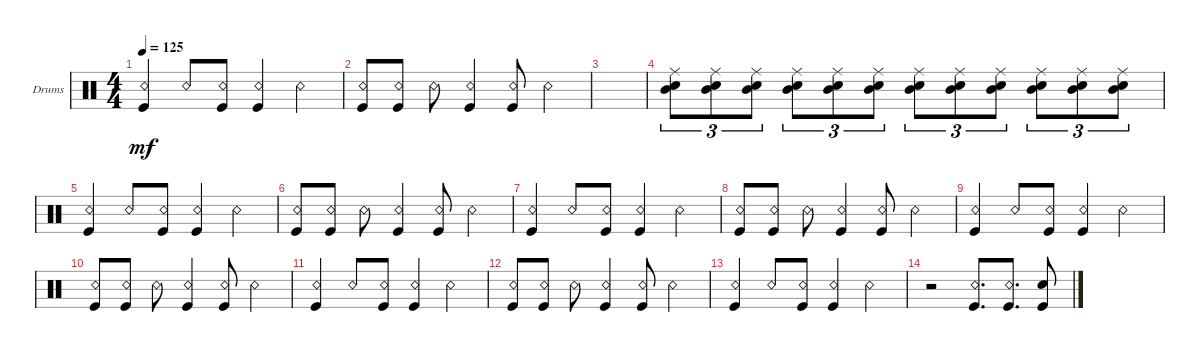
\defaultSystemsLayout 4
\bracketExtendMode groupsimilarinstruments
\firstSystemTrackNameOrientation horizontal
\otherSystemsTrackNameOrientation horizontal
\track ("Drumkit" "Drums") {instrument percussion}
\staff {score}
\articulation defaults
\ts (4 4)
\tempo 125
\clef neutral
\scale
0.333333
\ks c
("Kick (hit)" "Snare (rim shot)").4{dy mf} "Snare (rim shot)".8 ("Kick (hit)" "Snare (rim shot)").8 ("Kick (hit)" "Snare (rim shot)").4 "Snare (rim shot)".4 |
\scale
0.333333 ("Snare (rim shot)" "Kick (hit)").8 ("Snare (rim shot)" "Kick (hit)").8 "Snare (rim shot)".8 ("Snare (rim shot)" "Kick (hit)").4 ("Snare (rim shot)" "Kick (hit)").8 "Snare (rim shot)".4 |
\scale
0.333333 |
\scale
0.333333 ("Mid Tom (hit)" "Ride (middle)" "Snare (hit) 2").8{tu (3 2)} ("Mid Tom (hit)" "Ride (middle)" "Snare (hit) 2").8{tu (3 2)} ("Mid Tom (hit)" "Ride (middle)" "Snare (hit) 2").8{tu (3 2)} ("Mid Tom (hit)" "Ride (middle)" "Snare (hit) 2").8{tu (3 2)} ("Mid Tom (hit)" "Ride (middle)" "Snare (hit) 2").8{tu (3 2)} ("Mid Tom (hit)" "Ride (middle)" "Snare (hit) 2").8{tu (3 2)} ("Mid Tom (hit)" "Ride (middle)" "Snare (hit) 2").8{tu (3 2)} ("Mid Tom (hit)" "Ride (middle)" "Snare (hit) 2").8{tu (3 2)} ("Mid Tom (hit)" "Ride (middle)" "Snare (hit) 2").8{tu (3 2)} ("Mid Tom (hit)" "Ride (middle)" "Snare (hit) 2").8{tu (3 2)} ("Mid Tom (hit)" "Ride (middle)" "Snare (hit) 2").8{tu (3 2)} ("Mid Tom (hit)" "Ride (middle)" "Snare (hit) 2").8{tu (3 2)} |
\scale
0.333333 ("Kick (hit)" "Snare (rim shot)").4 "Snare (rim shot)".8 ("Kick (hit)" "Snare (rim shot)").8 ("Kick (hit)" "Snare (rim shot)").4 "Snare (rim shot)".4 |
\scale
0.333333 ("Snare (rim shot)" "Kick (hit)").8 ("Snare (rim shot)" "Kick (hit)").8 "Snare (rim shot)".8 ("Snare (rim shot)" "Kick (hit)").4 ("Snare (rim shot)" "Kick (hit)").8 "Snare (rim shot)".4 |
\scale
0.333333 ("Kick (hit)" "Snare (rim shot)").4 "Snare (rim shot)".8 ("Kick (hit)" "Snare (rim shot)").8 ("Kick (hit)" "Snare (rim shot)").4 "Snare (rim shot)".4 |
\scale
0.333333 ("Snare (rim shot)" "Kick (hit)").8 ("Snare (rim shot)" "Kick (hit)").8 "Snare (rim shot)".8 ("Snare (rim shot)" "Kick (hit)").4 ("Snare (rim shot)" "Kick (hit)").8 "Snare (rim shot)".4 |
\scale
0.333333 ("Kick (hit)" "Snare (rim shot)").4 "Snare (rim shot)".8 ("Kick (hit)" "Snare (rim shot)").8 ("Kick (hit)" "Snare (rim shot)").4 "Snare (rim shot)".4 |
\scale
0.333333 ("Snare (rim shot)" "Kick (hit)").8 ("Snare (rim shot)" "Kick (hit)").8 "Snare (rim shot)".8 ("Snare (rim shot)" "Kick (hit)").4 ("Snare (rim shot)" "Kick (hit)").8 "Snare (rim shot)".4 |
\scale
0.333333 ("Kick (hit)" "Snare (rim shot)").4 "Snare (rim shot)".8 ("Kick (hit)" "Snare (rim shot)").8 ("Kick (hit)" "Snare (rim shot)").4 "Snare (rim shot)".4 |
\scale
0.333333 ("Snare (rim shot)" "Kick (hit)").8 ("Snare (rim shot)" "Kick (hit)").8 "Snare (rim shot)".8 ("Snare (rim shot)" "Kick (hit)").4 ("Snare (rim shot)" "Kick (hit)").8 "Snare (rim shot)".4 |
\scale
0.333333 ("Kick (hit)" "Snare (rim shot)").4 "Snare (rim shot)".8 ("Kick (hit)" "Snare (rim shot)").8 ("Kick (hit)" "Snare (rim shot)").4 "Snare (rim shot)".4 |
\scale
0.333333 r.2 ("Snare (rim shot)" "Kick (hit)").8{d} ("Snare (rim shot)" "Kick (hit)").8{d} ("Kick (hit)" "Snare (hit) 2").8 |
\scale
0.311475 |
\scale
0.311475
